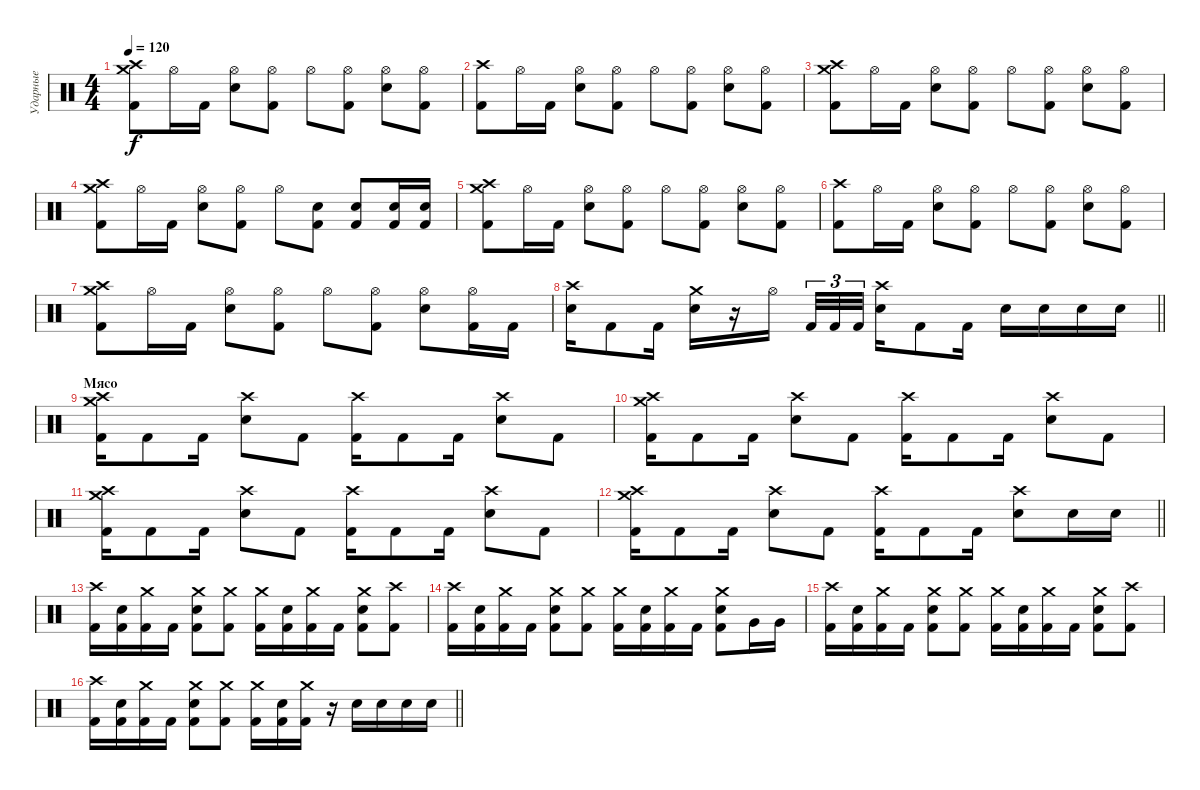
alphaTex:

\track ("Ударные" "Ударные") {instrument percussion}
\staff
\articulation defaults
\ts (4 4)
\section ("" "")
\tempo 120
\clef neutral
\ks c
("Crash high (hit)" "Crash medium (hit)" "Kick (hit) 2").8{dy f} "Hi-Hat (open)".16 "Kick (hit) 2".16 ("Hi-Hat (open)" "Electric Snare (hit)").8 ("Hi-Hat (open)" "Kick (hit) 2").8 "Hi-Hat (open)".8 ("Hi-Hat (open)" "Kick (hit) 2").8 ("Hi-Hat (open)" "Electric Snare (hit)").8 ("Hi-Hat (open)" "Kick (hit) 2").8 |
("Crash high (hit)" "Kick (hit) 2").8 "Hi-Hat (open)".16 "Kick (hit) 2".16 ("Hi-Hat (open)" "Electric Snare (hit)").8 ("Hi-Hat (open)" "Kick (hit) 2").8 "Hi-Hat (open)".8 ("Hi-Hat (open)" "Kick (hit) 2").8 ("Hi-Hat (open)" "Electric Snare (hit)").8 ("Hi-Hat (open)" "Kick (hit) 2").8 |
("Crash high (hit)" "Crash medium (hit)" "Kick (hit) 2").8 "Hi-Hat (open)".16 "Kick (hit) 2".16 ("Hi-Hat (open)" "Electric Snare (hit)").8 ("Hi-Hat (open)" "Kick (hit) 2").8 "Hi-Hat (open)".8 ("Hi-Hat (open)" "Kick (hit) 2").8 ("Hi-Hat (open)" "Electric Snare (hit)").8 ("Hi-Hat (open)" "Kick (hit) 2").8 |
("Crash high (hit)" "Crash medium (hit)" "Kick (hit) 2").8 "Hi-Hat (open)".16 "Kick (hit) 2".16 ("Hi-Hat (open)" "Electric Snare (hit)").8 ("Hi-Hat (open)" "Kick (hit) 2").8 "Hi-Hat (open)".8 ("Electric Snare (hit)" "Kick (hit) 2").8 ("Electric Snare (hit)" "Kick (hit) 2").8 ("Electric Snare (hit)" "Kick (hit) 2").16 ("Electric Snare (hit)" "Kick (hit) 2").16 |
("Crash high (hit)" "Crash medium (hit)" "Kick (hit) 2").8 "Hi-Hat (open)".16 "Kick (hit) 2".16 ("Hi-Hat (open)" "Electric Snare (hit)").8 ("Hi-Hat (open)" "Kick (hit) 2").8 "Hi-Hat (open)".8 ("Hi-Hat (open)" "Kick (hit) 2").8 ("Hi-Hat (open)" "Electric Snare (hit)").8 ("Hi-Hat (open)" "Kick (hit) 2").8 |
("Crash high (hit)" "Kick (hit) 2").8 "Hi-Hat (open)".16 "Kick (hit) 2".16 ("Hi-Hat (open)" "Electric Snare (hit)").8 ("Hi-Hat (open)" "Kick (hit) 2").8 "Hi-Hat (open)".8 ("Hi-Hat (open)" "Kick (hit) 2").8 ("Hi-Hat (open)" "Electric Snare (hit)").8 ("Hi-Hat (open)" "Kick (hit) 2").8 |
("Crash high (hit)" "Crash medium (hit)" "Kick (hit) 2").8 "Hi-Hat (open)".16 "Kick (hit) 2".16 ("Hi-Hat (open)" "Electric Snare (hit)").8 ("Hi-Hat (open)" "Kick (hit) 2").8 "Hi-Hat (open)".8 ("Hi-Hat (open)" "Kick (hit) 2").8 ("Hi-Hat (open)" "Electric Snare (hit)").8 ("Hi-Hat (open)" "Kick (hit) 2").16 "Kick (hit) 2".16 |
\barLineRight lightlight
("Crash high (hit)" "Electric Snare (hit)").16 "Kick (hit) 2".8 "Kick (hit) 2".16 ("Crash medium (hit)" "Electric Snare (hit)").16 r.16 "Hi-Hat (open)".16{beam splitsecondary} "Kick (hit) 2".32{tu (3 2)} "Kick (hit) 2".32{tu (3 2)} "Kick (hit) 2".32{tu (3 2)} ("Crash high (hit)" "Electric Snare (hit)").16 "Kick (hit) 2".8 "Kick (hit) 2".16 "Electric Snare (hit)".16 "Electric Snare (hit)".16 "Electric Snare (hit)".16 "Electric Snare (hit)".16 |
\section ("" "Мясо")
("Crash medium (hit)" "Crash high (hit)" "Kick (hit) 2").16 "Kick (hit) 2".8 "Kick (hit) 2".16 ("Crash high (hit)" "Electric Snare (hit)").8 "Kick (hit) 2".8 ("Crash high (hit)" "Kick (hit) 2").16 "Kick (hit) 2".8 "Kick (hit) 2".16 ("Crash high (hit)" "Electric Snare (hit)").8 "Kick (hit) 2".8 |
("Crash medium (hit)" "Crash high (hit)" "Kick (hit) 2").16 "Kick (hit) 2".8 "Kick (hit) 2".16 ("Crash high (hit)" "Electric Snare (hit)").8 "Kick (hit) 2".8 ("Crash high (hit)" "Kick (hit) 2").16 "Kick (hit) 2".8 "Kick (hit) 2".16 ("Crash high (hit)" "Electric Snare (hit)").8 "Kick (hit) 2".8 |
("Crash medium (hit)" "Crash high (hit)" "Kick (hit) 2").16 "Kick (hit) 2".8 "Kick (hit) 2".16 ("Crash high (hit)" "Electric Snare (hit)").8 "Kick (hit) 2".8 ("Crash high (hit)" "Kick (hit) 2").16 "Kick (hit) 2".8 "Kick (hit) 2".16 ("Crash high (hit)" "Electric Snare (hit)").8 "Kick (hit) 2".8 |
\barLineRight lightlight
("Crash medium (hit)" "Crash high (hit)" "Kick (hit) 2").16 "Kick (hit) 2".8 "Kick (hit) 2".16 ("Crash high (hit)" "Electric Snare (hit)").8 "Kick (hit) 2".8 ("Crash high (hit)" "Kick (hit) 2").16 "Kick (hit) 2".8 "Kick (hit) 2".16 ("Crash high (hit)" "Electric Snare (hit)").8 "Electric Snare (hit)".16 "Electric Snare (hit)".16 |
\section ("" "")
("Crash high (hit)" "Kick (hit) 2").16 ("Electric Snare (hit)" "Kick (hit) 2").16 ("Crash medium (hit)" "Kick (hit) 2").16 "Kick (hit) 2".16 ("Crash medium (hit)" "Electric Snare (hit)" "Kick (hit) 2").8 ("Crash medium (hit)" "Kick (hit) 2").8 ("Crash medium (hit)" "Kick (hit) 2").16 ("Electric Snare (hit)" "Kick (hit) 2").16 ("Crash medium (hit)" "Kick (hit) 2").16 "Kick (hit) 2".16 ("Crash medium (hit)" "Electric Snare (hit)" "Kick (hit) 2").8 ("Crash high (hit)" "Kick (hit) 2").8 |
("Crash high (hit)" "Kick (hit) 2").16 ("Electric Snare (hit)" "Kick (hit) 2").16 ("Crash medium (hit)" "Kick (hit) 2").16 "Kick (hit) 2".16 ("Crash medium (hit)" "Electric Snare (hit)" "Kick (hit) 2").8 ("Crash medium (hit)" "Kick (hit) 2").8 ("Crash medium (hit)" "Kick (hit) 2").16 ("Electric Snare (hit)" "Kick (hit) 2").16 ("Crash medium (hit)" "Kick (hit) 2").16 "Kick (hit) 2".16 ("Crash medium (hit)" "Electric Snare (hit)" "Kick (hit) 2").8 "Very Low Tom (hit)".16 "Very Low Tom (hit)".16 |
("Crash high (hit)" "Kick (hit) 2").16 ("Electric Snare (hit)" "Kick (hit) 2").16 ("Crash medium (hit)" "Kick (hit) 2").16 "Kick (hit) 2".16 ("Crash medium (hit)" "Electric Snare (hit)" "Kick (hit) 2").8 ("Crash medium (hit)" "Kick (hit) 2").8 ("Crash medium (hit)" "Kick (hit) 2").16 ("Electric Snare (hit)" "Kick (hit) 2").16 ("Crash medium (hit)" "Kick (hit) 2").16 "Kick (hit) 2".16 ("Crash medium (hit)" "Electric Snare (hit)" "Kick (hit) 2").8 ("Crash high (hit)" "Kick (hit) 2").8 |
\barLineRight lightlight
("Crash high (hit)" "Kick (hit) 2").16 ("Electric Snare (hit)" "Kick (hit) 2").16 ("Crash medium (hit)" "Kick (hit) 2").16 "Kick (hit) 2".16 ("Crash medium (hit)" "Electric Snare (hit)" "Kick (hit) 2").8 ("Crash medium (hit)" "Kick (hit) 2").8 ("Crash medium (hit)" "Kick (hit) 2").16 ("Electric Snare (hit)" "Kick (hit) 2").16 ("Crash medium (hit)" "Kick (hit) 2").16 r.16 "Electric Snare (hit)".16 "Electric Snare (hit)".16 "Electric Snare (hit)".16 "Electric Snare (hit)".16
